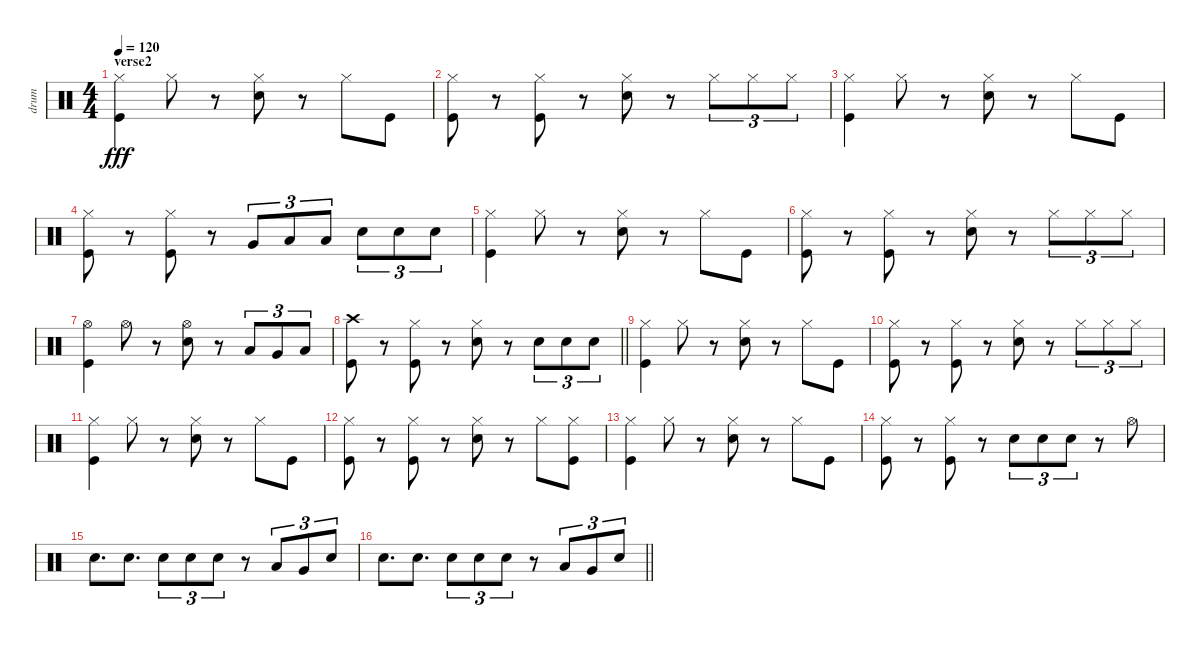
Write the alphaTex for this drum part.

\track ("drum" "drum") {instrument percussion}
\staff {score}
\articulation defaults
\ts (4 4)
\section ("" "verse2")
\tempo 120
\clef neutral
\ks c
("Hi-Hat (closed)" "Kick (hit)").4{dy fff} "Hi-Hat (closed)".8 r.8 ("Hi-Hat (closed)" "Hand Clap (hit)").8 r.8 "Hi-Hat (closed)".8 "Kick (hit)".8 |
("Hi-Hat (closed)" "Kick (hit)").8 r.8 ("Hi-Hat (closed)" "Kick (hit)").8 r.8 ("Hi-Hat (closed)" "Hand Clap (hit)").8 r.8 "Hi-Hat (closed)".8{tu (3 2)} "Hi-Hat (closed)".8{tu (3 2)} "Hi-Hat (closed)".8{tu (3 2)} |
("Hi-Hat (closed)" "Kick (hit)").4 "Hi-Hat (closed)".8 r.8 ("Hi-Hat (closed)" "Hand Clap (hit)").8 r.8 "Hi-Hat (closed)".8 "Kick (hit)".8 |
("Hi-Hat (closed)" "Kick (hit)").8 r.8 ("Hi-Hat (closed)" "Kick (hit)").8 r.8 "Very Low Tom (hit)".8{tu (3 2)} "Low Floor Tom (hit)".8{tu (3 2)} "Low Tom (hit)".8{tu (3 2)} "Electric Snare (hit)".8{tu (3 2)} "Electric Snare (hit)".8{tu (3 2)} "Electric Snare (hit)".8{tu (3 2)} |
("Hi-Hat (closed)" "Kick (hit)").4 "Hi-Hat (closed)".8 r.8 ("Hi-Hat (closed)" "Hand Clap (hit)").8 r.8 "Hi-Hat (closed)".8 "Kick (hit)".8 |
("Hi-Hat (closed)" "Kick (hit)").8 r.8 ("Hi-Hat (closed)" "Kick (hit)").8 r.8 ("Hi-Hat (closed)" "Hand Clap (hit)").8 r.8 "Hi-Hat (closed)".8{tu (3 2)} "Hi-Hat (closed)".8{tu (3 2)} "Hi-Hat (closed)".8{tu (3 2)} |
("Hi-Hat (open)" "Kick (hit)").4 "Hi-Hat (open)".8 r.8 ("Hi-Hat (open)" "Hand Clap (hit)").8 r.8 "Low Tom (hit)".8{tu (3 2)} "Very Low Tom (hit)".8{tu (3 2)} "Low Floor Tom (hit)".8{tu (3 2)} |
\barLineRight lightlight
("Crash high (hit)" "Kick (hit)").8 r.8 ("Hi-Hat (closed)" "Kick (hit)").8 r.8 ("Hi-Hat (closed)" "Hand Clap (hit)").8 r.8 "Electric Snare (hit)".8{tu (3 2)} "Electric Snare (hit)".8{tu (3 2)} "Electric Snare (hit)".8{tu (3 2)} |
("Hi-Hat (closed)" "Kick (hit)").4 "Hi-Hat (closed)".8 r.8 ("Hi-Hat (closed)" "Hand Clap (hit)").8 r.8 "Hi-Hat (closed)".8 "Kick (hit)".8 |
("Hi-Hat (closed)" "Kick (hit)").8 r.8 ("Hi-Hat (closed)" "Kick (hit)").8 r.8 ("Hi-Hat (closed)" "Hand Clap (hit)").8 r.8 "Hi-Hat (closed)".8{tu (3 2)} "Hi-Hat (closed)".8{tu (3 2)} "Hi-Hat (closed)".8{tu (3 2)} |
("Hi-Hat (closed)" "Kick (hit)").4 "Hi-Hat (closed)".8 r.8 ("Hi-Hat (closed)" "Hand Clap (hit)").8 r.8 "Hi-Hat (closed)".8 "Kick (hit)".8 |
("Hi-Hat (closed)" "Kick (hit)").8 r.8 ("Hi-Hat (closed)" "Kick (hit)").8 r.8 ("Hi-Hat (closed)" "Hand Clap (hit)").8 r.8 "Hi-Hat (closed)".8 ("Hi-Hat (closed)" "Kick (hit)").8 |
("Hi-Hat (closed)" "Kick (hit)").4 "Hi-Hat (closed)".8 r.8 ("Hi-Hat (closed)" "Hand Clap (hit)").8 r.8 "Hi-Hat (closed)".8 "Kick (hit)".8 |
("Hi-Hat (closed)" "Kick (hit)").8 r.8 ("Hi-Hat (closed)" "Kick (hit)").8 r.8 "Electric Snare (hit)".8{tu (3 2)} "Electric Snare (hit)".8{tu (3 2)} "Electric Snare (hit)".8{tu (3 2)} r.8 "Hi-Hat (open)".8 |
"Electric Snare (hit)".8{d} "Electric Snare (hit)".8{d} "Electric Snare (hit)".8{tu (3 2)} "Electric Snare (hit)".8{tu (3 2)} "Electric Snare (hit)".8{tu (3 2)} r.8 "Low Tom (hit)".8{tu (3 2)} "Very Low Tom (hit)".8{tu (3 2)} "Electric Snare (hit)".8{tu (3 2)} |
\barLineRight lightlight "Electric Snare (hit)".8{d} "Electric Snare (hit)".8{d} "Electric Snare (hit)".8{tu (3 2)} "Electric Snare (hit)".8{tu (3 2)} "Electric Snare (hit)".8{tu (3 2)}
r.8 "Low Tom (hit)".8{tu (3 2)} "Very Low Tom (hit)".8{tu (3 2)} "Electric Snare (hit)".8{tu (3 2)}
